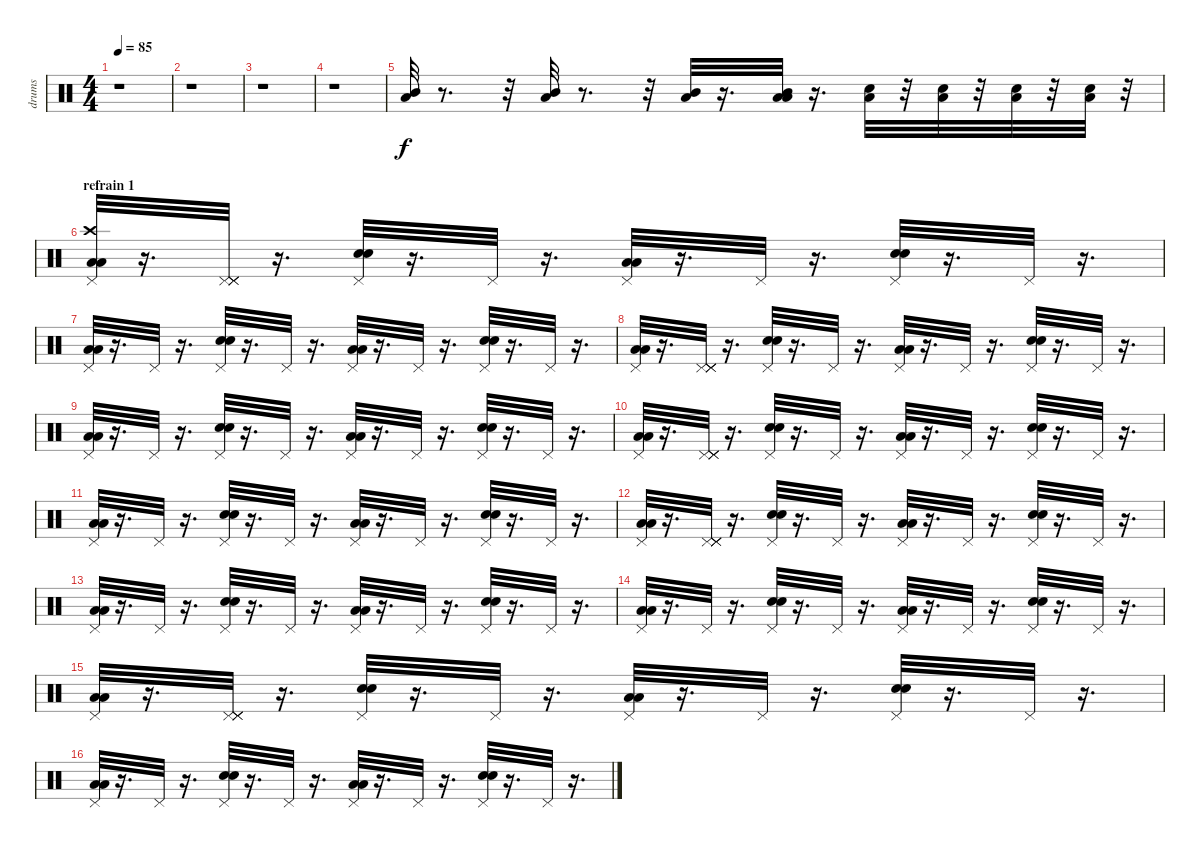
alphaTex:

\track ("drums" "drums") {instrument percussion}
\staff {score}
\articulation defaults
\ts (4 4)
\tempo 85
\clef neutral
\ks c
r.1{dy f} |
r.1 |
r.1 |
r.1 |
("Low Floor Tom (hit)" "Mid Tom (hit)").32 r.8{d} r.32 ("Low Floor Tom (hit)" "Mid Tom (hit)").32 r.8{d} r.32 ("Low Floor Tom (hit)" "Mid Tom (hit)").32 r.16{d} ("Low Floor Tom (hit)" "Low Tom (hit)" "Mid Tom (hit)").32 r.16{d} ("Low Floor Tom (hit)" "Snare (hit) 2").32 r.32 ("Low Floor Tom (hit)" "Snare (hit) 2").32 r.32 ("Low Floor Tom (hit)" "Snare (hit) 2").32 r.32 ("Low Floor Tom (hit)" "Snare (hit) 2").32 r.32 |
\section ("" "refrain 1")
("Crash high (hit)" "Pedal Hi-Hat (hit)" "Low Floor Tom (hit)" "Low Tom (hit)").32 r.16{d} ("Pedal Hi-Hat (hit)" "Pedal Hi-Hat (hit)" "Pedal Hi-Hat (hit)" "Pedal Hi-Hat (hit)").32 r.16{d} ("Pedal Hi-Hat (hit)" "Electric Snare (hit)" "Snare (hit) 2").32 r.16{d} "Pedal Hi-Hat (hit)".32 r.16{d} ("Pedal Hi-Hat (hit)" "Low Tom (hit)" "Low Floor Tom (hit)").32 r.16{d} "Pedal Hi-Hat (hit)".32 r.16{d} ("Pedal Hi-Hat (hit)" "Snare (hit) 2" "Electric Snare (hit)").32 r.16{d} "Pedal Hi-Hat (hit)".32 r.16{d} |
("Low Floor Tom (hit)" "Low Tom (hit)" "Pedal Hi-Hat (hit)").32 r.16{d} "Pedal Hi-Hat (hit)".32 r.16{d} ("Snare (hit) 2" "Electric Snare (hit)" "Pedal Hi-Hat (hit)").32 r.16{d} "Pedal Hi-Hat (hit)".32 r.16{d} ("Low Tom (hit)" "Low Floor Tom (hit)" "Pedal Hi-Hat (hit)").32 r.16{d} "Pedal Hi-Hat (hit)".32 r.16{d} ("Snare (hit) 2" "Electric Snare (hit)" "Pedal Hi-Hat (hit)").32 r.16{d} "Pedal Hi-Hat (hit)".32 r.16{d} |
("Pedal Hi-Hat (hit)" "Low Floor Tom (hit)" "Low Tom (hit)").32 r.16{d} ("Pedal Hi-Hat (hit)" "Pedal Hi-Hat (hit)" "Pedal Hi-Hat (hit)" "Pedal Hi-Hat (hit)").32 r.16{d} ("Pedal Hi-Hat (hit)" "Electric Snare (hit)" "Snare (hit) 2").32 r.16{d} "Pedal Hi-Hat (hit)".32 r.16{d} ("Pedal Hi-Hat (hit)" "Low Tom (hit)" "Low Floor Tom (hit)").32 r.16{d} "Pedal Hi-Hat (hit)".32 r.16{d} ("Pedal Hi-Hat (hit)" "Snare (hit) 2" "Electric Snare (hit)").32 r.16{d} "Pedal Hi-Hat (hit)".32 r.16{d} |
("Low Floor Tom (hit)" "Low Tom (hit)" "Pedal Hi-Hat (hit)").32 r.16{d} "Pedal Hi-Hat (hit)".32 r.16{d} ("Snare (hit) 2" "Electric Snare (hit)" "Pedal Hi-Hat (hit)").32 r.16{d} "Pedal Hi-Hat (hit)".32 r.16{d} ("Low Tom (hit)" "Low Floor Tom (hit)" "Pedal Hi-Hat (hit)").32 r.16{d} "Pedal Hi-Hat (hit)".32 r.16{d} ("Snare (hit) 2" "Electric Snare (hit)" "Pedal Hi-Hat (hit)").32 r.16{d} "Pedal Hi-Hat (hit)".32 r.16{d} |
("Pedal Hi-Hat (hit)" "Low Floor Tom (hit)" "Low Tom (hit)").32 r.16{d} ("Pedal Hi-Hat (hit)" "Pedal Hi-Hat (hit)" "Pedal Hi-Hat (hit)" "Pedal Hi-Hat (hit)").32 r.16{d} ("Pedal Hi-Hat (hit)" "Electric Snare (hit)" "Snare (hit) 2").32 r.16{d} "Pedal Hi-Hat (hit)".32 r.16{d} ("Pedal Hi-Hat (hit)" "Low Tom (hit)" "Low Floor Tom (hit)").32 r.16{d} "Pedal Hi-Hat (hit)".32 r.16{d} ("Pedal Hi-Hat (hit)" "Snare (hit) 2" "Electric Snare (hit)").32 r.16{d} "Pedal Hi-Hat (hit)".32 r.16{d} |
("Low Floor Tom (hit)" "Low Tom (hit)" "Pedal Hi-Hat (hit)").32 r.16{d} "Pedal Hi-Hat (hit)".32 r.16{d} ("Snare (hit) 2" "Electric Snare (hit)" "Pedal Hi-Hat (hit)").32 r.16{d} "Pedal Hi-Hat (hit)".32 r.16{d} ("Low Tom (hit)" "Low Floor Tom (hit)" "Pedal Hi-Hat (hit)").32 r.16{d} "Pedal Hi-Hat (hit)".32 r.16{d} ("Snare (hit) 2" "Electric Snare (hit)" "Pedal Hi-Hat (hit)").32 r.16{d} "Pedal Hi-Hat (hit)".32 r.16{d} |
("Pedal Hi-Hat (hit)" "Low Floor Tom (hit)" "Low Tom (hit)").32 r.16{d} ("Pedal Hi-Hat (hit)" "Pedal Hi-Hat (hit)" "Pedal Hi-Hat (hit)" "Pedal Hi-Hat (hit)").32 r.16{d} ("Pedal Hi-Hat (hit)" "Electric Snare (hit)" "Snare (hit) 2").32 r.16{d} "Pedal Hi-Hat (hit)".32 r.16{d} ("Pedal Hi-Hat (hit)" "Low Tom (hit)" "Low Floor Tom (hit)").32 r.16{d} "Pedal Hi-Hat (hit)".32 r.16{d} ("Pedal Hi-Hat (hit)" "Snare (hit) 2" "Electric Snare (hit)").32 r.16{d} "Pedal Hi-Hat (hit)".32 r.16{d} |
("Low Floor Tom (hit)" "Low Tom (hit)" "Pedal Hi-Hat (hit)").32 r.16{d} "Pedal Hi-Hat (hit)".32 r.16{d} ("Snare (hit) 2" "Electric Snare (hit)" "Pedal Hi-Hat (hit)").32 r.16{d} "Pedal Hi-Hat (hit)".32 r.16{d} ("Low Tom (hit)" "Low Floor Tom (hit)" "Pedal Hi-Hat (hit)").32 r.16{d} "Pedal Hi-Hat (hit)".32 r.16{d} ("Snare (hit) 2" "Electric Snare (hit)" "Pedal Hi-Hat (hit)").32 r.16{d} "Pedal Hi-Hat (hit)".32 r.16{d} |
("Low Floor Tom (hit)" "Low Tom (hit)" "Pedal Hi-Hat (hit)").32 r.16{d} "Pedal Hi-Hat (hit)".32 r.16{d} ("Snare (hit) 2" "Electric Snare (hit)" "Pedal Hi-Hat (hit)").32 r.16{d} "Pedal Hi-Hat (hit)".32 r.16{d} ("Low Tom (hit)" "Low Floor Tom (hit)" "Pedal Hi-Hat (hit)").32 r.16{d} "Pedal Hi-Hat (hit)".32 r.16{d} ("Snare (hit) 2" "Electric Snare (hit)" "Pedal Hi-Hat (hit)").32 r.16{d} "Pedal Hi-Hat (hit)".32 r.16{d} |
("Pedal Hi-Hat (hit)" "Low Floor Tom (hit)" "Low Tom (hit)").32 r.16{d} ("Pedal Hi-Hat (hit)" "Pedal Hi-Hat (hit)" "Pedal Hi-Hat (hit)" "Pedal Hi-Hat (hit)").32 r.16{d} ("Pedal Hi-Hat (hit)" "Electric Snare (hit)" "Snare (hit) 2").32 r.16{d} "Pedal Hi-Hat (hit)".32 r.16{d} ("Pedal Hi-Hat (hit)" "Low Tom (hit)" "Low Floor Tom (hit)").32 r.16{d} "Pedal Hi-Hat (hit)".32 r.16{d} ("Pedal Hi-Hat (hit)" "Snare (hit) 2" "Electric Snare (hit)").32 r.16{d} "Pedal Hi-Hat (hit)".32 r.16{d} |
("Low Floor Tom (hit)" "Low Tom (hit)" "Pedal Hi-Hat (hit)").32 r.16{d} "Pedal Hi-Hat (hit)".32 r.16{d} ("Snare (hit) 2" "Electric Snare (hit)" "Pedal Hi-Hat (hit)").32 r.16{d} "Pedal Hi-Hat (hit)".32 r.16{d} ("Low Tom (hit)" "Low Floor Tom (hit)" "Pedal Hi-Hat (hit)").32 r.16{d} "Pedal Hi-Hat (hit)".32 r.16{d} ("Snare (hit) 2" "Electric Snare (hit)" "Pedal Hi-Hat (hit)").32 r.16{d} "Pedal Hi-Hat (hit)".32 r.16{d}
